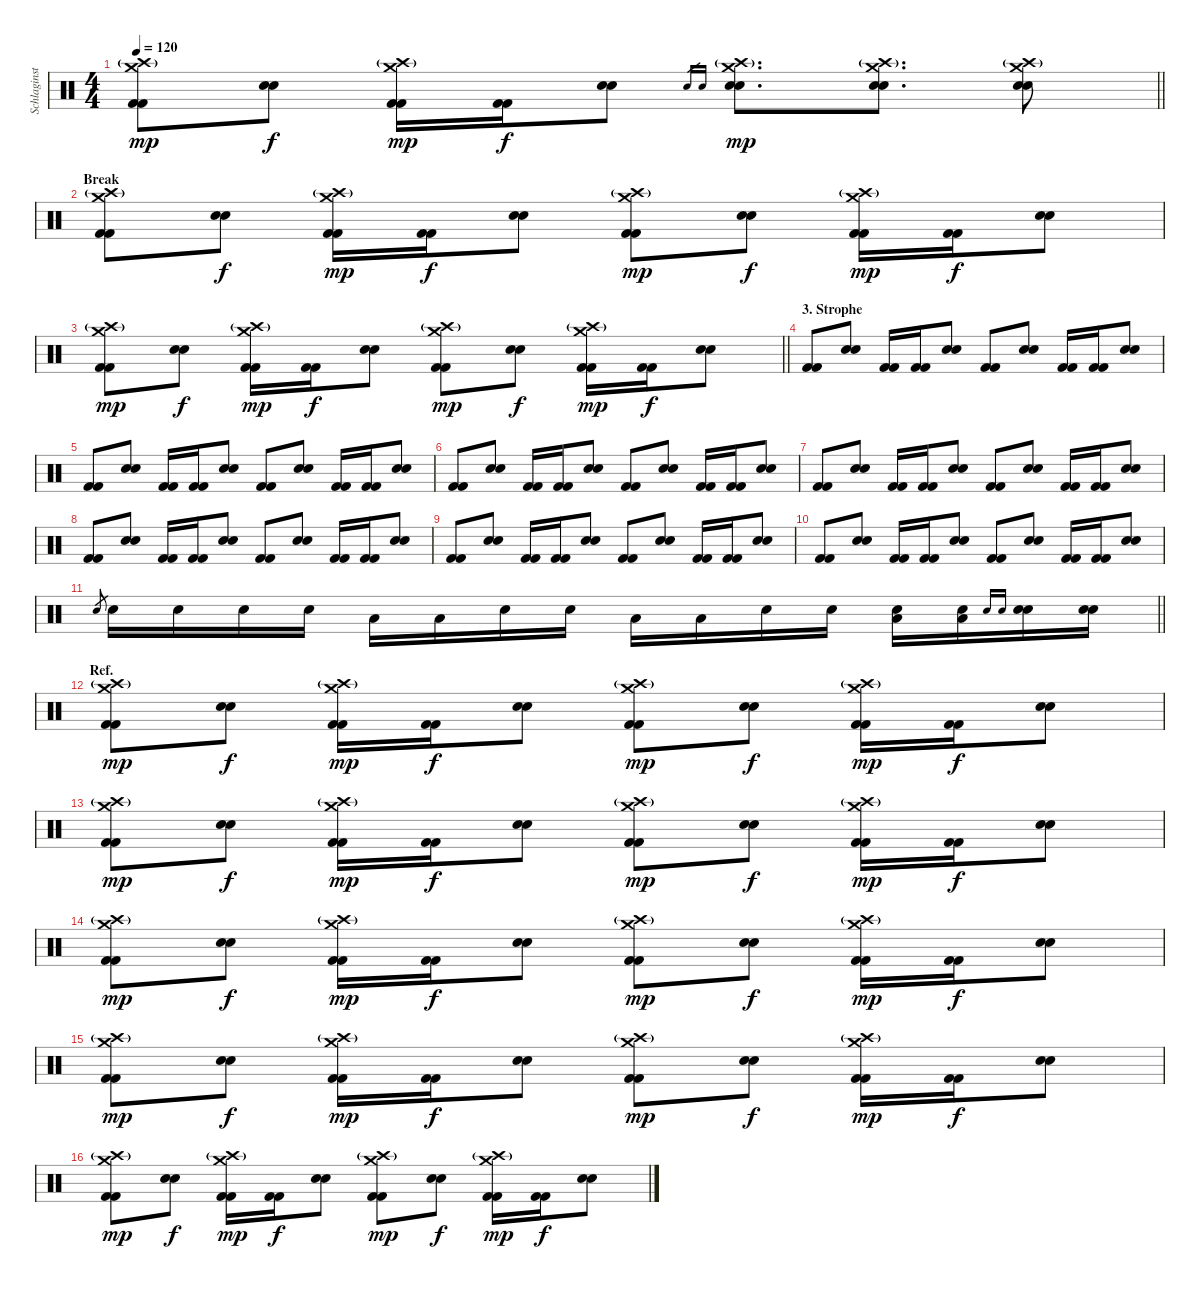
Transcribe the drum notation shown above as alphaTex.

\track ("Schlaginstrumente - Auswahl" "Schlaginst") {instrument percussion}
\staff {score}
\articulation defaults
\ts (4 4)
\tempo 120
\clef neutral
\barLineRight lightlight
\ks c
("Crash high (hit)"{g} "Crash medium (hit)" "Kick (hit) 2" "Kick (hit) 2").8{dy mp} ("Electric Snare (hit)" "Electric Snare (hit)").8{dy f} ("Crash high (hit)"{g} "Crash medium (hit)" "Kick (hit) 2" "Kick (hit) 2").16{dy mp} ("Kick (hit) 2" "Kick (hit) 2").16{dy f} ("Electric Snare (hit)" "Electric Snare (hit)").8 "Electric Snare (hit)".16{gr} "Electric Snare (hit)".16{gr} ("Crash high (hit)"{g} "Crash medium (hit)" "Electric Snare (hit)" "Electric Snare (hit)").8{d dy mp} ("Crash high (hit)"{g} "Crash medium (hit)" "Electric Snare (hit)" "Electric Snare (hit)").8{d} ("Crash high (hit)"{g} "Crash medium (hit)" "Electric Snare (hit)" "Electric Snare (hit)").8 |
\section ("" "Break")
("Crash high (hit)"{g} "Crash medium (hit)" "Kick (hit) 2" "Kick (hit) 2").8 ("Electric Snare (hit)" "Electric Snare (hit)").8{dy f} ("Crash high (hit)"{g} "Crash medium (hit)" "Kick (hit) 2" "Kick (hit) 2").16{dy mp} ("Kick (hit) 2" "Kick (hit) 2").16{dy f} ("Electric Snare (hit)" "Electric Snare (hit)").8 ("Crash high (hit)"{g} "Crash medium (hit)" "Kick (hit) 2" "Kick (hit) 2").8{dy mp} ("Electric Snare (hit)" "Electric Snare (hit)").8{dy f} ("Crash high (hit)"{g} "Crash medium (hit)" "Kick (hit) 2" "Kick (hit) 2").16{dy mp} ("Kick (hit) 2" "Kick (hit) 2").16{dy f} ("Electric Snare (hit)" "Electric Snare (hit)").8 |
\barLineRight lightlight
("Crash high (hit)"{g} "Crash medium (hit)" "Kick (hit) 2" "Kick (hit) 2").8{dy mp} ("Electric Snare (hit)" "Electric Snare (hit)").8{dy f} ("Crash high (hit)"{g} "Crash medium (hit)" "Kick (hit) 2" "Kick (hit) 2").16{dy mp} ("Kick (hit) 2" "Kick (hit) 2").16{dy f} ("Electric Snare (hit)" "Electric Snare (hit)").8 ("Crash high (hit)"{g} "Crash medium (hit)" "Kick (hit) 2" "Kick (hit) 2").8{dy mp} ("Electric Snare (hit)" "Electric Snare (hit)").8{dy f} ("Crash high (hit)"{g} "Crash medium (hit)" "Kick (hit) 2" "Kick (hit) 2").16{dy mp} ("Kick (hit) 2" "Kick (hit) 2").16{dy f} ("Electric Snare (hit)" "Electric Snare (hit)").8 |
\section ("" "3. Strophe")
("Kick (hit) 2" "Kick (hit) 2").8 ("Electric Snare (hit)" "Electric Snare (hit)").8 ("Kick (hit) 2" "Kick (hit) 2").16 ("Kick (hit) 2" "Kick (hit) 2").16 ("Electric Snare (hit)" "Electric Snare (hit)").8 ("Kick (hit) 2" "Kick (hit) 2").8 ("Electric Snare (hit)" "Electric Snare (hit)").8 ("Kick (hit) 2" "Kick (hit) 2").16 ("Kick (hit) 2" "Kick (hit) 2").16 ("Electric Snare (hit)" "Electric Snare (hit)").8 |
("Kick (hit) 2" "Kick (hit) 2").8 ("Electric Snare (hit)" "Electric Snare (hit)").8 ("Kick (hit) 2" "Kick (hit) 2").16 ("Kick (hit) 2" "Kick (hit) 2").16 ("Electric Snare (hit)" "Electric Snare (hit)").8 ("Kick (hit) 2" "Kick (hit) 2").8 ("Electric Snare (hit)" "Electric Snare (hit)").8 ("Kick (hit) 2" "Kick (hit) 2").16 ("Kick (hit) 2" "Kick (hit) 2").16 ("Electric Snare (hit)" "Electric Snare (hit)").8 |
("Kick (hit) 2" "Kick (hit) 2").8 ("Electric Snare (hit)" "Electric Snare (hit)").8 ("Kick (hit) 2" "Kick (hit) 2").16 ("Kick (hit) 2" "Kick (hit) 2").16 ("Electric Snare (hit)" "Electric Snare (hit)").8 ("Kick (hit) 2" "Kick (hit) 2").8 ("Electric Snare (hit)" "Electric Snare (hit)").8 ("Kick (hit) 2" "Kick (hit) 2").16 ("Kick (hit) 2" "Kick (hit) 2").16 ("Electric Snare (hit)" "Electric Snare (hit)").8 |
("Kick (hit) 2" "Kick (hit) 2").8 ("Electric Snare (hit)" "Electric Snare (hit)").8 ("Kick (hit) 2" "Kick (hit) 2").16 ("Kick (hit) 2" "Kick (hit) 2").16 ("Electric Snare (hit)" "Electric Snare (hit)").8 ("Kick (hit) 2" "Kick (hit) 2").8 ("Electric Snare (hit)" "Electric Snare (hit)").8 ("Kick (hit) 2" "Kick (hit) 2").16 ("Kick (hit) 2" "Kick (hit) 2").16 ("Electric Snare (hit)" "Electric Snare (hit)").8 |
("Kick (hit) 2" "Kick (hit) 2").8 ("Electric Snare (hit)" "Electric Snare (hit)").8 ("Kick (hit) 2" "Kick (hit) 2").16 ("Kick (hit) 2" "Kick (hit) 2").16 ("Electric Snare (hit)" "Electric Snare (hit)").8 ("Kick (hit) 2" "Kick (hit) 2").8 ("Electric Snare (hit)" "Electric Snare (hit)").8 ("Kick (hit) 2" "Kick (hit) 2").16 ("Kick (hit) 2" "Kick (hit) 2").16 ("Electric Snare (hit)" "Electric Snare (hit)").8 |
("Kick (hit) 2" "Kick (hit) 2").8 ("Electric Snare (hit)" "Electric Snare (hit)").8 ("Kick (hit) 2" "Kick (hit) 2").16 ("Kick (hit) 2" "Kick (hit) 2").16 ("Electric Snare (hit)" "Electric Snare (hit)").8 ("Kick (hit) 2" "Kick (hit) 2").8 ("Electric Snare (hit)" "Electric Snare (hit)").8 ("Kick (hit) 2" "Kick (hit) 2").16 ("Kick (hit) 2" "Kick (hit) 2").16 ("Electric Snare (hit)" "Electric Snare (hit)").8 |
("Kick (hit) 2" "Kick (hit) 2").8 ("Electric Snare (hit)" "Electric Snare (hit)").8 ("Kick (hit) 2" "Kick (hit) 2").16 ("Kick (hit) 2" "Kick (hit) 2").16 ("Electric Snare (hit)" "Electric Snare (hit)").8 ("Kick (hit) 2" "Kick (hit) 2").8 ("Electric Snare (hit)" "Electric Snare (hit)").8 ("Kick (hit) 2" "Kick (hit) 2").16 ("Kick (hit) 2" "Kick (hit) 2").16 ("Electric Snare (hit)" "Electric Snare (hit)").8 |
\barLineRight lightlight "Electric Snare (hit)".8{gr} "Electric Snare (hit)".16 "Electric Snare (hit)".16 "Snare (hit) 2".16 "Snare (hit) 2".16 "Low Tom (hit)".16 "Low Tom (hit)".16 "Snare (hit) 2".16 "Snare (hit) 2".16 "Low Tom (hit)".16 "Low Tom (hit)".16 "Electric Snare (hit)".16 "Electric Snare (hit)".16
("Snare (hit) 2" "Low Tom (hit)").16 ("Snare (hit) 2" "Low Tom (hit)").16 "Electric Snare (hit)".16{gr onbeat} "Electric Snare (hit)".16{gr onbeat} ("Electric Snare (hit)" "Electric Snare (hit)").16 ("Electric Snare (hit)" "Electric Snare (hit)").16 |
\section ("" "Ref.")
("Crash high (hit)"{g} "Crash medium (hit)" "Kick (hit) 2" "Kick (hit) 2").8{dy mp} ("Electric Snare (hit)" "Electric Snare (hit)").8{dy f} ("Crash high (hit)"{g} "Crash medium (hit)" "Kick (hit) 2" "Kick (hit) 2").16{dy mp} ("Kick (hit) 2" "Kick (hit) 2").16{dy f} ("Electric Snare (hit)" "Electric Snare (hit)").8 ("Crash high (hit)"{g} "Crash medium (hit)" "Kick (hit) 2" "Kick (hit) 2").8{dy mp} ("Electric Snare (hit)" "Electric Snare (hit)").8{dy f} ("Crash high (hit)"{g} "Crash medium (hit)" "Kick (hit) 2" "Kick (hit) 2").16{dy mp} ("Kick (hit) 2" "Kick (hit) 2").16{dy f} ("Electric Snare (hit)" "Electric Snare (hit)").8 |
("Crash high (hit)"{g} "Crash medium (hit)" "Kick (hit) 2" "Kick (hit) 2").8{dy mp} ("Electric Snare (hit)" "Electric Snare (hit)").8{dy f} ("Crash high (hit)"{g} "Crash medium (hit)" "Kick (hit) 2" "Kick (hit) 2").16{dy mp} ("Kick (hit) 2" "Kick (hit) 2").16{dy f} ("Electric Snare (hit)" "Electric Snare (hit)").8 ("Crash high (hit)"{g} "Crash medium (hit)" "Kick (hit) 2" "Kick (hit) 2").8{dy mp} ("Electric Snare (hit)" "Electric Snare (hit)").8{dy f} ("Crash high (hit)"{g} "Crash medium (hit)" "Kick (hit) 2" "Kick (hit) 2").16{dy mp} ("Kick (hit) 2" "Kick (hit) 2").16{dy f} ("Electric Snare (hit)" "Electric Snare (hit)").8 |
("Crash high (hit)"{g} "Crash medium (hit)" "Kick (hit) 2" "Kick (hit) 2").8{dy mp} ("Electric Snare (hit)" "Electric Snare (hit)").8{dy f} ("Crash high (hit)"{g} "Crash medium (hit)" "Kick (hit) 2" "Kick (hit) 2").16{dy mp} ("Kick (hit) 2" "Kick (hit) 2").16{dy f} ("Electric Snare (hit)" "Electric Snare (hit)").8 ("Crash high (hit)"{g} "Crash medium (hit)" "Kick (hit) 2" "Kick (hit) 2").8{dy mp} ("Electric Snare (hit)" "Electric Snare (hit)").8{dy f} ("Crash high (hit)"{g} "Crash medium (hit)" "Kick (hit) 2" "Kick (hit) 2").16{dy mp} ("Kick (hit) 2" "Kick (hit) 2").16{dy f} ("Electric Snare (hit)" "Electric Snare (hit)").8 |
("Crash high (hit)"{g} "Crash medium (hit)" "Kick (hit) 2" "Kick (hit) 2").8{dy mp} ("Electric Snare (hit)" "Electric Snare (hit)").8{dy f} ("Crash high (hit)"{g} "Crash medium (hit)" "Kick (hit) 2" "Kick (hit) 2").16{dy mp} ("Kick (hit) 2" "Kick (hit) 2").16{dy f} ("Electric Snare (hit)" "Electric Snare (hit)").8 ("Crash high (hit)"{g} "Crash medium (hit)" "Kick (hit) 2" "Kick (hit) 2").8{dy mp} ("Electric Snare (hit)" "Electric Snare (hit)").8{dy f} ("Crash high (hit)"{g} "Crash medium (hit)" "Kick (hit) 2" "Kick (hit) 2").16{dy mp} ("Kick (hit) 2" "Kick (hit) 2").16{dy f} ("Electric Snare (hit)" "Electric Snare (hit)").8 |
("Crash high (hit)"{g} "Crash medium (hit)" "Kick (hit) 2" "Kick (hit) 2").8{dy mp} ("Electric Snare (hit)" "Electric Snare (hit)").8{dy f} ("Crash high (hit)"{g} "Crash medium (hit)" "Kick (hit) 2" "Kick (hit) 2").16{dy mp} ("Kick (hit) 2" "Kick (hit) 2").16{dy f} ("Electric Snare (hit)" "Electric Snare (hit)").8 ("Crash high (hit)"{g} "Crash medium (hit)" "Kick (hit) 2" "Kick (hit) 2").8{dy mp} ("Electric Snare (hit)" "Electric Snare (hit)").8{dy f} ("Crash high (hit)"{g} "Crash medium (hit)" "Kick (hit) 2" "Kick (hit) 2").16{dy mp} ("Kick (hit) 2" "Kick (hit) 2").16{dy f} ("Electric Snare (hit)" "Electric Snare (hit)").8
